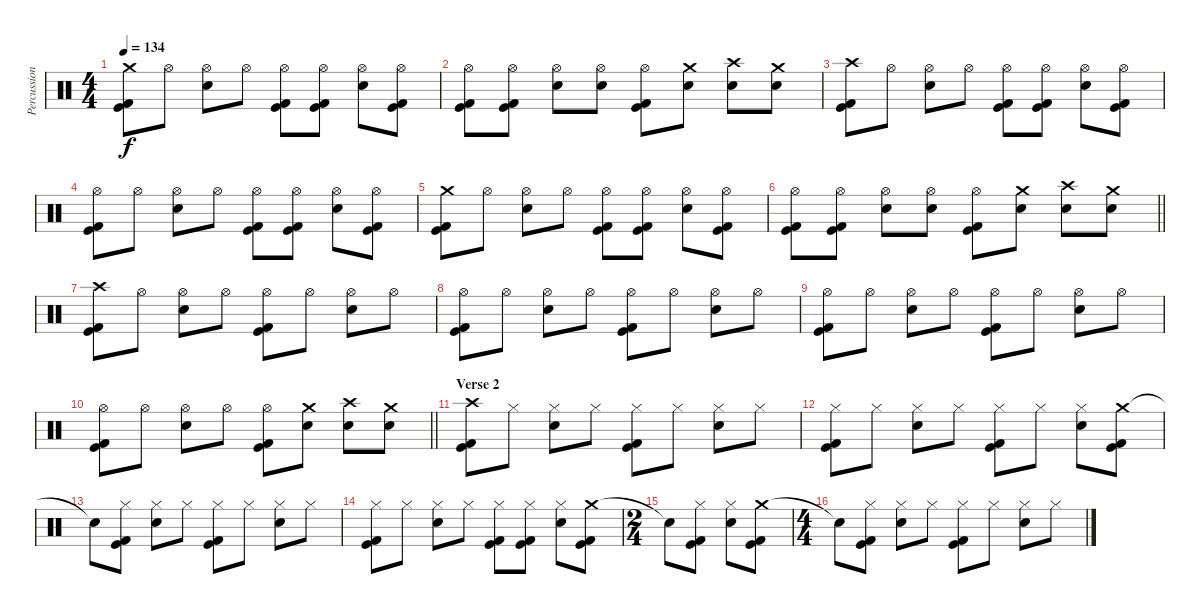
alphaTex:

\track ("Percussion" "Percussion") {instrument percussion}
\staff {score}
\articulation defaults
\ts (4 4)
\tempo 134
\clef neutral
\ks c
("Crash medium (hit)" "Kick (hit)" "Kick (hit) 2").8{dy f} "Hi-Hat (open)".8 ("Hi-Hat (open)" "Electric Snare (hit)").8 "Hi-Hat (open)".8 ("Hi-Hat (open)" "Kick (hit)" "Kick (hit) 2").8 ("Hi-Hat (open)" "Kick (hit)" "Kick (hit) 2").8 ("Hi-Hat (open)" "Electric Snare (hit)").8 ("Hi-Hat (open)" "Kick (hit)" "Kick (hit) 2").8 |
("Hi-Hat (open)" "Kick (hit)" "Kick (hit) 2").8 ("Hi-Hat (open)" "Kick (hit)" "Kick (hit) 2").8 ("Hi-Hat (open)" "Electric Snare (hit)").8 ("Hi-Hat (open)" "Electric Snare (hit)").8 ("Hi-Hat (open)" "Kick (hit)" "Kick (hit) 2").8 ("Crash medium (hit)" "Electric Snare (hit)").8 ("Crash high (hit)" "Electric Snare (hit)").8 ("Crash medium (hit)" "Electric Snare (hit)").8 |
("Crash high (hit)" "Kick (hit)" "Kick (hit) 2").8 "Hi-Hat (open)".8 ("Hi-Hat (open)" "Electric Snare (hit)").8 "Hi-Hat (open)".8 ("Hi-Hat (open)" "Kick (hit)" "Kick (hit) 2").8 ("Hi-Hat (open)" "Kick (hit)" "Kick (hit) 2").8 ("Hi-Hat (open)" "Electric Snare (hit)").8 ("Hi-Hat (open)" "Kick (hit)" "Kick (hit) 2").8 |
("Hi-Hat (open)" "Kick (hit)" "Kick (hit) 2").8 "Hi-Hat (open)".8 ("Hi-Hat (open)" "Electric Snare (hit)").8 "Hi-Hat (open)".8 ("Hi-Hat (open)" "Kick (hit)" "Kick (hit) 2").8 ("Hi-Hat (open)" "Kick (hit)" "Kick (hit) 2").8 ("Hi-Hat (open)" "Electric Snare (hit)").8 ("Hi-Hat (open)" "Kick (hit)" "Kick (hit) 2").8 |
("Crash medium (hit)" "Kick (hit)" "Kick (hit) 2").8 "Hi-Hat (open)".8 ("Hi-Hat (open)" "Electric Snare (hit)").8 "Hi-Hat (open)".8 ("Hi-Hat (open)" "Kick (hit)" "Kick (hit) 2").8 ("Hi-Hat (open)" "Kick (hit)" "Kick (hit) 2").8 ("Hi-Hat (open)" "Electric Snare (hit)").8 ("Hi-Hat (open)" "Kick (hit)" "Kick (hit) 2").8 |
\barLineRight lightlight
("Hi-Hat (open)" "Kick (hit)" "Kick (hit) 2").8 ("Hi-Hat (open)" "Kick (hit)" "Kick (hit) 2").8 ("Hi-Hat (open)" "Electric Snare (hit)").8 ("Hi-Hat (open)" "Electric Snare (hit)").8 ("Hi-Hat (open)" "Kick (hit)" "Kick (hit) 2").8 ("Crash medium (hit)" "Electric Snare (hit)").8 ("Crash high (hit)" "Electric Snare (hit)").8 ("Crash medium (hit)" "Electric Snare (hit)").8 |
\section ("" "")
("Crash high (hit)" "Kick (hit)" "Kick (hit) 2").8 "Hi-Hat (open)".8 ("Hi-Hat (open)" "Electric Snare (hit)").8 "Hi-Hat (open)".8 ("Hi-Hat (open)" "Kick (hit)" "Kick (hit) 2").8 "Hi-Hat (open)".8 ("Hi-Hat (open)" "Electric Snare (hit)").8 "Hi-Hat (open)".8 |
("Hi-Hat (open)" "Kick (hit)" "Kick (hit) 2").8 "Hi-Hat (open)".8 ("Hi-Hat (open)" "Electric Snare (hit)").8 "Hi-Hat (open)".8 ("Hi-Hat (open)" "Kick (hit)" "Kick (hit) 2").8 "Hi-Hat (open)".8 ("Hi-Hat (open)" "Electric Snare (hit)").8 "Hi-Hat (open)".8 |
("Hi-Hat (open)" "Kick (hit)" "Kick (hit) 2").8 "Hi-Hat (open)".8 ("Hi-Hat (open)" "Electric Snare (hit)").8 "Hi-Hat (open)".8 ("Hi-Hat (open)" "Kick (hit)" "Kick (hit) 2").8 "Hi-Hat (open)".8 ("Hi-Hat (open)" "Electric Snare (hit)").8 "Hi-Hat (open)".8 |
\barLineRight lightlight
("Hi-Hat (open)" "Kick (hit)" "Kick (hit) 2").8 "Hi-Hat (open)".8 ("Hi-Hat (open)" "Electric Snare (hit)").8 "Hi-Hat (open)".8 ("Hi-Hat (open)" "Kick (hit)" "Kick (hit) 2").8 ("Crash medium (hit)" "Electric Snare (hit)").8 ("Crash high (hit)" "Electric Snare (hit)").8 ("Crash medium (hit)" "Electric Snare (hit)").8 |
\section ("" "Verse 2")
("Crash high (hit)" "Kick (hit)" "Kick (hit) 2").8 "Hi-Hat (closed)".8 ("Hi-Hat (closed)" "Electric Snare (hit)").8 "Hi-Hat (closed)".8 ("Hi-Hat (closed)" "Kick (hit)" "Kick (hit) 2").8 "Hi-Hat (closed)".8 ("Hi-Hat (closed)" "Electric Snare (hit)").8 "Hi-Hat (closed)".8 |
("Hi-Hat (closed)" "Kick (hit)" "Kick (hit) 2").8 "Hi-Hat (closed)".8 ("Hi-Hat (closed)" "Electric Snare (hit)").8 "Hi-Hat (closed)".8 ("Hi-Hat (closed)" "Kick (hit)" "Kick (hit) 2").8 "Hi-Hat (closed)".8 ("Hi-Hat (closed)" "Electric Snare (hit)").8 ("Crash medium (hit)" "Kick (hit)" "Kick (hit) 2").8 |
"Snare (hit)"{t}.8 ("Hi-Hat (closed)" "Kick (hit)" "Kick (hit) 2").8 ("Hi-Hat (closed)" "Electric Snare (hit)").8 "Hi-Hat (closed)".8 ("Hi-Hat (closed)" "Kick (hit)" "Kick (hit) 2").8 "Hi-Hat (closed)".8 ("Hi-Hat (closed)" "Electric Snare (hit)").8 "Hi-Hat (closed)".8 |
("Hi-Hat (closed)" "Kick (hit)" "Kick (hit) 2").8 "Hi-Hat (closed)".8 ("Hi-Hat (closed)" "Electric Snare (hit)").8 "Hi-Hat (closed)".8 ("Hi-Hat (closed)" "Kick (hit)" "Kick (hit) 2").8 ("Hi-Hat (closed)" "Kick (hit)" "Kick (hit) 2").8 ("Hi-Hat (closed)" "Electric Snare (hit)").8 ("Crash medium (hit)" "Kick (hit)" "Kick (hit) 2").8 |
\ts (2 4)
"Snare (hit)"{t}.8 ("Hi-Hat (closed)" "Kick (hit)" "Kick (hit) 2").8 ("Hi-Hat (closed)" "Electric Snare (hit)").8 ("Crash medium (hit)" "Kick (hit)" "Kick (hit) 2").8 |
\ts (4 4)
"Snare (hit)"{t}.8 ("Hi-Hat (closed)" "Kick (hit)" "Kick (hit) 2").8 ("Hi-Hat (closed)" "Electric Snare (hit)").8 "Hi-Hat (closed)".8 ("Hi-Hat (closed)" "Kick (hit)" "Kick (hit) 2").8 "Hi-Hat (closed)".8 ("Hi-Hat (closed)" "Electric Snare (hit)").8 "Hi-Hat (closed)".8
